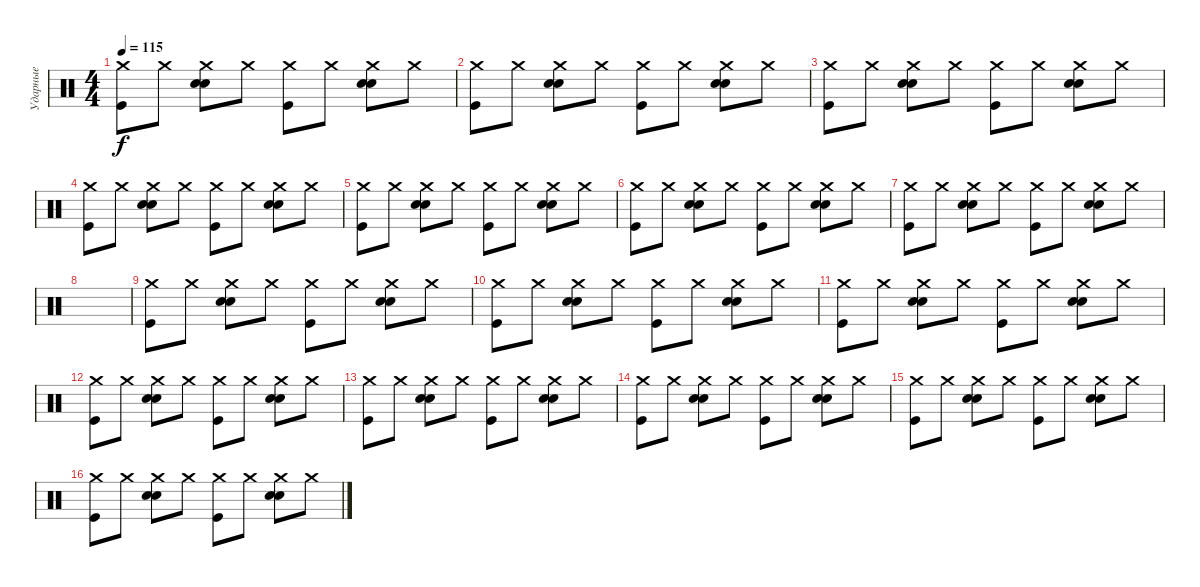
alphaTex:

\track ("Ударные" "Ударные") {instrument percussion}
\staff {score}
\articulation defaults
\ts (4 4)
\tempo 115
\clef neutral
\ks c
("Crash medium (hit)" "Kick (hit)").8{dy f} "Crash medium (hit)".8 ("Crash medium (hit)" "Snare (hit) 2" "Snare (hit) 2").8 "Crash medium (hit)".8 ("Crash medium (hit)" "Kick (hit)").8 "Crash medium (hit)".8 ("Crash medium (hit)" "Snare (hit) 2" "Snare (hit) 2").8 "Crash medium (hit)".8 |
("Crash medium (hit)" "Kick (hit)").8 "Crash medium (hit)".8 ("Crash medium (hit)" "Snare (hit) 2" "Snare (hit) 2").8 "Crash medium (hit)".8 ("Crash medium (hit)" "Kick (hit)").8 "Crash medium (hit)".8 ("Crash medium (hit)" "Snare (hit) 2" "Snare (hit) 2").8 "Crash medium (hit)".8 |
("Crash medium (hit)" "Kick (hit)").8 "Crash medium (hit)".8 ("Crash medium (hit)" "Snare (hit) 2" "Snare (hit) 2").8 "Crash medium (hit)".8 ("Crash medium (hit)" "Kick (hit)").8 "Crash medium (hit)".8 ("Crash medium (hit)" "Snare (hit) 2" "Snare (hit) 2").8 "Crash medium (hit)".8 |
("Crash medium (hit)" "Kick (hit)").8 "Crash medium (hit)".8 ("Crash medium (hit)" "Snare (hit) 2" "Snare (hit) 2").8 "Crash medium (hit)".8 ("Crash medium (hit)" "Kick (hit)").8 "Crash medium (hit)".8 ("Crash medium (hit)" "Snare (hit) 2" "Snare (hit) 2").8 "Crash medium (hit)".8 |
("Crash medium (hit)" "Kick (hit)").8 "Crash medium (hit)".8 ("Crash medium (hit)" "Snare (hit) 2" "Snare (hit) 2").8 "Crash medium (hit)".8 ("Crash medium (hit)" "Kick (hit)").8 "Crash medium (hit)".8 ("Crash medium (hit)" "Snare (hit) 2" "Snare (hit) 2").8 "Crash medium (hit)".8 |
("Crash medium (hit)" "Kick (hit)").8 "Crash medium (hit)".8 ("Crash medium (hit)" "Snare (hit) 2" "Snare (hit) 2").8 "Crash medium (hit)".8 ("Crash medium (hit)" "Kick (hit)").8 "Crash medium (hit)".8 ("Crash medium (hit)" "Snare (hit) 2" "Snare (hit) 2").8 "Crash medium (hit)".8 |
("Crash medium (hit)" "Kick (hit)").8 "Crash medium (hit)".8 ("Crash medium (hit)" "Snare (hit) 2" "Snare (hit) 2").8 "Crash medium (hit)".8 ("Crash medium (hit)" "Kick (hit)").8 "Crash medium (hit)".8 ("Crash medium (hit)" "Snare (hit) 2" "Snare (hit) 2").8 "Crash medium (hit)".8 |
|
("Crash medium (hit)" "Kick (hit)").8 "Crash medium (hit)".8 ("Crash medium (hit)" "Snare (hit) 2" "Snare (hit) 2").8 "Crash medium (hit)".8 ("Crash medium (hit)" "Kick (hit)").8 "Crash medium (hit)".8 ("Crash medium (hit)" "Snare (hit) 2" "Snare (hit) 2").8 "Crash medium (hit)".8 |
("Crash medium (hit)" "Kick (hit)").8 "Crash medium (hit)".8 ("Crash medium (hit)" "Snare (hit) 2" "Snare (hit) 2").8 "Crash medium (hit)".8 ("Crash medium (hit)" "Kick (hit)").8 "Crash medium (hit)".8 ("Crash medium (hit)" "Snare (hit) 2" "Snare (hit) 2").8 "Crash medium (hit)".8 |
("Crash medium (hit)" "Kick (hit)").8 "Crash medium (hit)".8 ("Crash medium (hit)" "Snare (hit) 2" "Snare (hit) 2").8 "Crash medium (hit)".8 ("Crash medium (hit)" "Kick (hit)").8 "Crash medium (hit)".8 ("Crash medium (hit)" "Snare (hit) 2" "Snare (hit) 2").8 "Crash medium (hit)".8 |
("Crash medium (hit)" "Kick (hit)").8 "Crash medium (hit)".8 ("Crash medium (hit)" "Snare (hit) 2" "Snare (hit) 2").8 "Crash medium (hit)".8 ("Crash medium (hit)" "Kick (hit)").8 "Crash medium (hit)".8 ("Crash medium (hit)" "Snare (hit) 2" "Snare (hit) 2").8 "Crash medium (hit)".8 |
("Crash medium (hit)" "Kick (hit)").8 "Crash medium (hit)".8 ("Crash medium (hit)" "Snare (hit) 2" "Snare (hit) 2").8 "Crash medium (hit)".8 ("Crash medium (hit)" "Kick (hit)").8 "Crash medium (hit)".8 ("Crash medium (hit)" "Snare (hit) 2" "Snare (hit) 2").8 "Crash medium (hit)".8 |
("Crash medium (hit)" "Kick (hit)").8 "Crash medium (hit)".8 ("Crash medium (hit)" "Snare (hit) 2" "Snare (hit) 2").8 "Crash medium (hit)".8 ("Crash medium (hit)" "Kick (hit)").8 "Crash medium (hit)".8 ("Crash medium (hit)" "Snare (hit) 2" "Snare (hit) 2").8 "Crash medium (hit)".8 |
("Crash medium (hit)" "Kick (hit)").8 "Crash medium (hit)".8 ("Crash medium (hit)" "Snare (hit) 2" "Snare (hit) 2").8 "Crash medium (hit)".8 ("Crash medium (hit)" "Kick (hit)").8 "Crash medium (hit)".8 ("Crash medium (hit)" "Snare (hit) 2" "Snare (hit) 2").8 "Crash medium (hit)".8 |
("Crash medium (hit)" "Kick (hit)").8 "Crash medium (hit)".8 ("Crash medium (hit)" "Snare (hit) 2" "Snare (hit) 2").8 "Crash medium (hit)".8 ("Crash medium (hit)" "Kick (hit)").8 "Crash medium (hit)".8 ("Crash medium (hit)" "Snare (hit) 2" "Snare (hit) 2").8 "Crash medium (hit)".8
